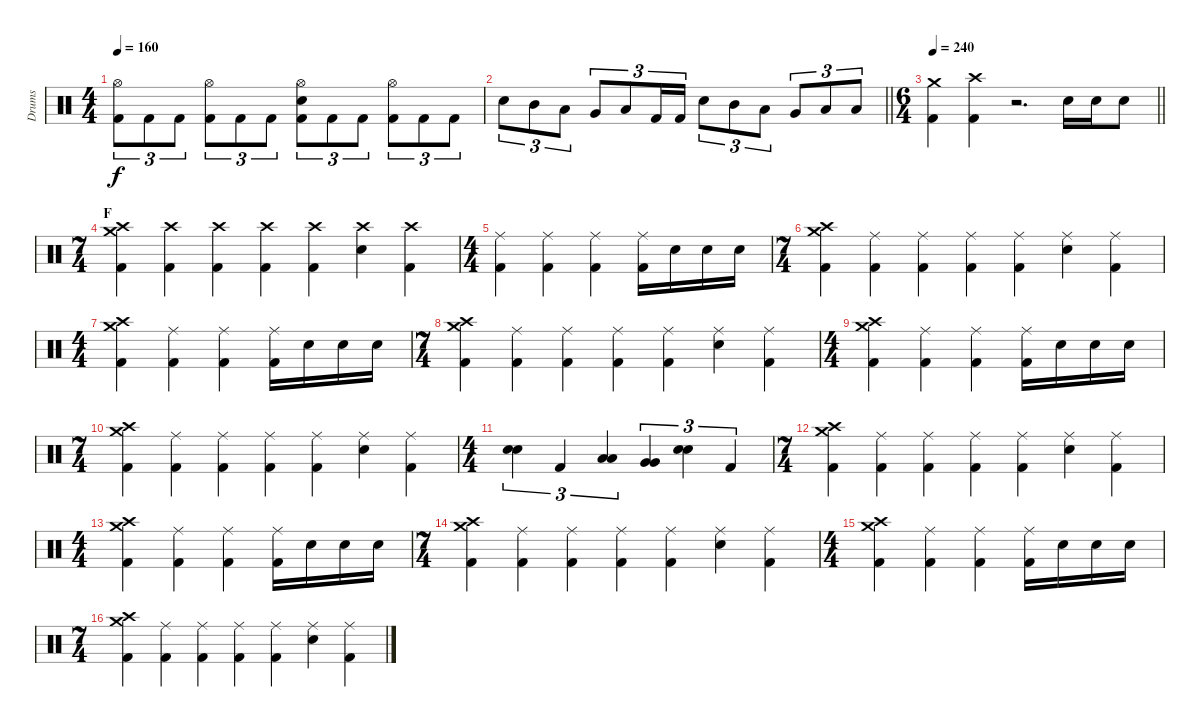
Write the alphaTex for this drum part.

\track ("Drums" "Drums") {instrument percussion}
\staff {score}
\articulation defaults
\ts (4 4)
\tempo 160
\clef neutral
\ks c
("Hi-Hat (open)" "Kick (hit) 2").8{tu (3 2) dy f} "Kick (hit) 2".8{tu (3 2)} "Kick (hit) 2".8{tu (3 2)} ("Hi-Hat (open)" "Kick (hit) 2").8{tu (3 2)} "Kick (hit) 2".8{tu (3 2)} "Kick (hit) 2".8{tu (3 2)} ("Hi-Hat (open)" "Electric Snare (hit)" "Kick (hit) 2").8{tu (3 2)} "Kick (hit) 2".8{tu (3 2)} "Kick (hit) 2".8{tu (3 2)} ("Hi-Hat (open)" "Kick (hit) 2").8{tu (3 2)} "Kick (hit) 2".8{tu (3 2)} "Kick (hit) 2".8{tu (3 2)} |
\barLineRight lightlight "Electric Snare (hit)".8{tu (3 2)} "Mid Tom (hit)".8{tu (3 2)} "Low Tom (hit)".8{tu (3 2)} "Very Low Tom (hit)".8{tu (3 2)} "Low Floor Tom (hit)".8{tu (3 2)} "Kick (hit) 2".16{tu (3 2)} "Kick (hit) 2".16{tu (3 2)} "Electric Snare (hit)".8{tu (3 2)} "Mid Tom (hit)".8{tu (3 2)} "Low Tom (hit)".8{tu (3 2)} "Very Low Tom (hit)".8{tu (3 2)} "Low Floor Tom (hit)".8{tu (3 2)} "Low Tom (hit)".8{tu (3 2)}
|
\ts (6 4)
\section ("" "")
\tempo 240
\barLineRight lightlight
("Crash medium (hit)" "Kick (hit) 2").4 ("Crash high (hit)" "Kick (hit) 2").4 r.2{d volume 0} "Electric Snare (hit)".16{volume 14} "Electric Snare (hit)".16 "Electric Snare (hit)".8 |
\ts (7 4)
\section ("" "F")
("Crash medium (hit)" "Crash high (hit)" "Kick (hit) 2").4 ("Crash high (hit)" "Kick (hit) 2").4 ("Crash high (hit)" "Kick (hit) 2").4 ("Crash high (hit)" "Kick (hit) 2").4 ("Crash high (hit)" "Kick (hit) 2").4 ("Crash high (hit)" "Electric Snare (hit)").4 ("Crash high (hit)" "Kick (hit) 2").4 |
\ts (4 4)
("Ride (middle)" "Kick (hit) 2").4 ("Ride (middle)" "Kick (hit) 2").4 ("Ride (middle)" "Kick (hit) 2").4 ("Ride (middle)" "Kick (hit) 2").16 "Electric Snare (hit)".16 "Electric Snare (hit)".16 "Electric Snare (hit)".16 |
\ts (7 4)
("Crash medium (hit)" "Crash high (hit)" "Kick (hit) 2").4 ("Ride (middle)" "Kick (hit) 2").4 ("Ride (middle)" "Kick (hit) 2").4 ("Ride (middle)" "Kick (hit) 2").4 ("Ride (middle)" "Kick (hit) 2").4 ("Ride (middle)" "Electric Snare (hit)").4 ("Ride (middle)" "Kick (hit) 2").4 |
\ts (4 4)
("Crash medium (hit)" "Crash high (hit)" "Kick (hit) 2").4 ("Ride (middle)" "Kick (hit) 2").4 ("Ride (middle)" "Kick (hit) 2").4 ("Ride (middle)" "Kick (hit) 2").16 "Electric Snare (hit)".16 "Electric Snare (hit)".16 "Electric Snare (hit)".16 |
\ts (7 4)
("Crash medium (hit)" "Crash high (hit)" "Kick (hit) 2").4 ("Ride (middle)" "Kick (hit) 2").4 ("Ride (middle)" "Kick (hit) 2").4 ("Ride (middle)" "Kick (hit) 2").4 ("Ride (middle)" "Kick (hit) 2").4 ("Ride (middle)" "Electric Snare (hit)").4 ("Ride (middle)" "Kick (hit) 2").4 |
\ts (4 4)
("Crash medium (hit)" "Crash high (hit)" "Kick (hit) 2").4 ("Ride (middle)" "Kick (hit) 2").4 ("Ride (middle)" "Kick (hit) 2").4 ("Ride (middle)" "Kick (hit) 2").16 "Electric Snare (hit)".16 "Electric Snare (hit)".16 "Electric Snare (hit)".16 |
\ts (7 4)
("Crash medium (hit)" "Crash high (hit)" "Kick (hit) 2").4 ("Ride (middle)" "Kick (hit) 2").4 ("Ride (middle)" "Kick (hit) 2").4 ("Ride (middle)" "Kick (hit) 2").4 ("Ride (middle)" "Kick (hit) 2").4 ("Ride (middle)" "Electric Snare (hit)").4 ("Ride (middle)" "Kick (hit) 2").4 |
\ts (4 4)
("Electric Snare (hit)" "Electric Snare (hit)").4{tu (3 2) bu 120} "Kick (hit) 2".4{tu (3 2)} ("Low Tom (hit)" "Low Tom (hit)").4{tu (3 2) bu 120} ("Very Low Tom (hit)" "Very Low Tom (hit)").4{tu (3 2) bu 120} ("Electric Snare (hit)" "Electric Snare (hit)").4{tu (3 2) bu 120} "Kick (hit) 2".4{tu (3 2)} |
\ts (7 4)
("Crash medium (hit)" "Crash high (hit)" "Kick (hit) 2").4 ("Ride (middle)" "Kick (hit) 2").4 ("Ride (middle)" "Kick (hit) 2").4 ("Ride (middle)" "Kick (hit) 2").4 ("Ride (middle)" "Kick (hit) 2").4 ("Ride (middle)" "Electric Snare (hit)").4 ("Ride (middle)" "Kick (hit) 2").4 |
\ts (4 4)
("Crash medium (hit)" "Crash high (hit)" "Kick (hit) 2").4 ("Ride (middle)" "Kick (hit) 2").4 ("Ride (middle)" "Kick (hit) 2").4 ("Ride (middle)" "Kick (hit) 2").16 "Electric Snare (hit)".16 "Electric Snare (hit)".16 "Electric Snare (hit)".16 |
\ts (7 4)
("Crash medium (hit)" "Crash high (hit)" "Kick (hit) 2").4 ("Ride (middle)" "Kick (hit) 2").4 ("Ride (middle)" "Kick (hit) 2").4 ("Ride (middle)" "Kick (hit) 2").4 ("Ride (middle)" "Kick (hit) 2").4 ("Ride (middle)" "Electric Snare (hit)").4 ("Ride (middle)" "Kick (hit) 2").4 |
\ts (4 4)
("Crash medium (hit)" "Crash high (hit)" "Kick (hit) 2").4 ("Ride (middle)" "Kick (hit) 2").4 ("Ride (middle)" "Kick (hit) 2").4 ("Ride (middle)" "Kick (hit) 2").16 "Electric Snare (hit)".16 "Electric Snare (hit)".16 "Electric Snare (hit)".16 |
\ts (7 4)
("Crash medium (hit)" "Crash high (hit)" "Kick (hit) 2").4 ("Ride (middle)" "Kick (hit) 2").4 ("Ride (middle)" "Kick (hit) 2").4 ("Ride (middle)" "Kick (hit) 2").4 ("Ride (middle)" "Kick (hit) 2").4 ("Ride (middle)" "Electric Snare (hit)").4 ("Ride (middle)" "Kick (hit) 2").4
